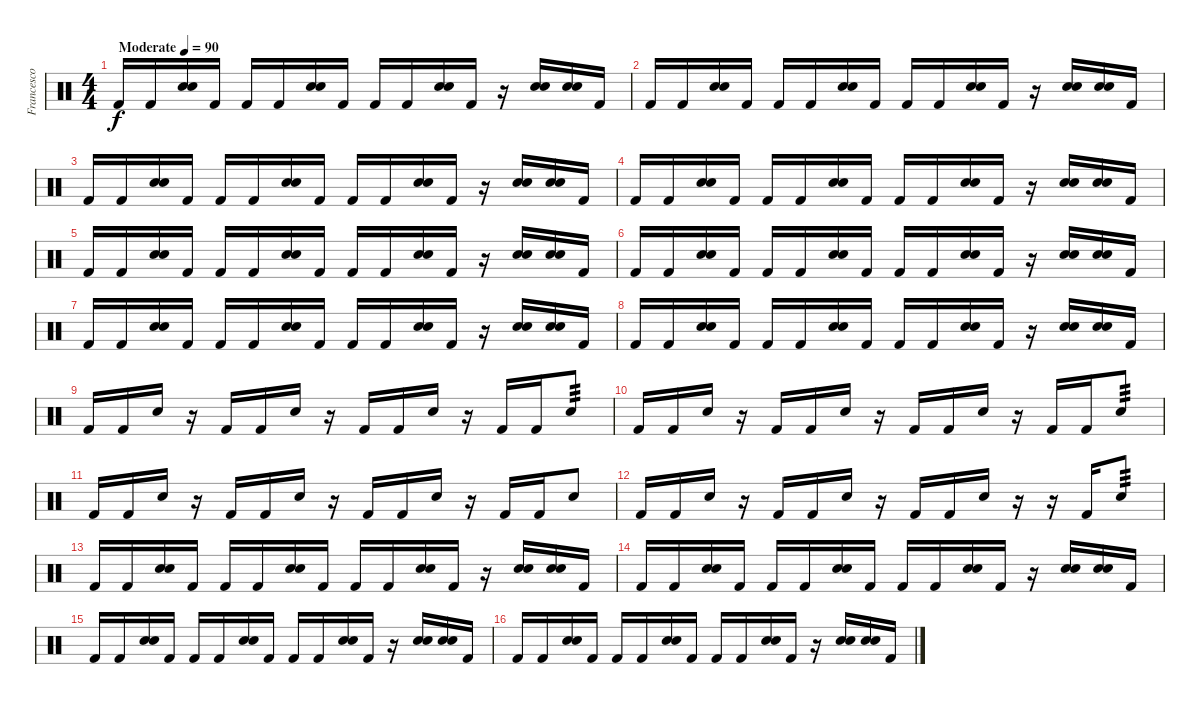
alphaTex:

\track ("Francesco -Franz- Valente" "Francesco ") {instrument percussion}
\staff {score}
\articulation defaults
\ts (4 4)
\tempo (90 "Moderate")
\clef neutral
\ks c "Kick (hit) 2".16{dy f} "Kick (hit) 2".16
("Electric Snare (hit)" "Electric Snare (hit)").16 "Kick (hit) 2".16 "Kick (hit) 2".16 "Kick (hit) 2".16 ("Electric Snare (hit)" "Electric Snare (hit)").16 "Kick (hit) 2".16 "Kick (hit) 2".16 "Kick (hit) 2".16 ("Electric Snare (hit)" "Electric Snare (hit)").16 "Kick (hit) 2".16 r.16 ("Electric Snare (hit)" "Electric Snare (hit)").16 ("Electric Snare (hit)" "Electric Snare (hit)").16 "Kick (hit) 2".16 |
"Kick (hit) 2".16 "Kick (hit) 2".16 ("Electric Snare (hit)" "Electric Snare (hit)").16 "Kick (hit) 2".16 "Kick (hit) 2".16 "Kick (hit) 2".16 ("Electric Snare (hit)" "Electric Snare (hit)").16 "Kick (hit) 2".16 "Kick (hit) 2".16 "Kick (hit) 2".16 ("Electric Snare (hit)" "Electric Snare (hit)").16 "Kick (hit) 2".16 r.16 ("Electric Snare (hit)" "Electric Snare (hit)").16 ("Electric Snare (hit)" "Electric Snare (hit)").16 "Kick (hit) 2".16 |
"Kick (hit) 2".16 "Kick (hit) 2".16 ("Electric Snare (hit)" "Electric Snare (hit)").16 "Kick (hit) 2".16 "Kick (hit) 2".16 "Kick (hit) 2".16 ("Electric Snare (hit)" "Electric Snare (hit)").16 "Kick (hit) 2".16 "Kick (hit) 2".16 "Kick (hit) 2".16 ("Electric Snare (hit)" "Electric Snare (hit)").16 "Kick (hit) 2".16 r.16 ("Electric Snare (hit)" "Electric Snare (hit)").16 ("Electric Snare (hit)" "Electric Snare (hit)").16 "Kick (hit) 2".16 |
"Kick (hit) 2".16 "Kick (hit) 2".16 ("Electric Snare (hit)" "Electric Snare (hit)").16 "Kick (hit) 2".16 "Kick (hit) 2".16 "Kick (hit) 2".16 ("Electric Snare (hit)" "Electric Snare (hit)").16 "Kick (hit) 2".16 "Kick (hit) 2".16 "Kick (hit) 2".16 ("Electric Snare (hit)" "Electric Snare (hit)").16 "Kick (hit) 2".16 r.16 ("Electric Snare (hit)" "Electric Snare (hit)").16 ("Electric Snare (hit)" "Electric Snare (hit)").16 "Kick (hit) 2".16 |
"Kick (hit) 2".16 "Kick (hit) 2".16 ("Electric Snare (hit)" "Electric Snare (hit)").16 "Kick (hit) 2".16 "Kick (hit) 2".16 "Kick (hit) 2".16 ("Electric Snare (hit)" "Electric Snare (hit)").16 "Kick (hit) 2".16 "Kick (hit) 2".16 "Kick (hit) 2".16 ("Electric Snare (hit)" "Electric Snare (hit)").16 "Kick (hit) 2".16 r.16 ("Electric Snare (hit)" "Electric Snare (hit)").16 ("Electric Snare (hit)" "Electric Snare (hit)").16 "Kick (hit) 2".16 |
"Kick (hit) 2".16 "Kick (hit) 2".16 ("Electric Snare (hit)" "Electric Snare (hit)").16 "Kick (hit) 2".16 "Kick (hit) 2".16 "Kick (hit) 2".16 ("Electric Snare (hit)" "Electric Snare (hit)").16 "Kick (hit) 2".16 "Kick (hit) 2".16 "Kick (hit) 2".16 ("Electric Snare (hit)" "Electric Snare (hit)").16 "Kick (hit) 2".16 r.16 ("Electric Snare (hit)" "Electric Snare (hit)").16 ("Electric Snare (hit)" "Electric Snare (hit)").16 "Kick (hit) 2".16 |
"Kick (hit) 2".16 "Kick (hit) 2".16 ("Electric Snare (hit)" "Electric Snare (hit)").16 "Kick (hit) 2".16 "Kick (hit) 2".16 "Kick (hit) 2".16 ("Electric Snare (hit)" "Electric Snare (hit)").16 "Kick (hit) 2".16 "Kick (hit) 2".16 "Kick (hit) 2".16 ("Electric Snare (hit)" "Electric Snare (hit)").16 "Kick (hit) 2".16 r.16 ("Electric Snare (hit)" "Electric Snare (hit)").16 ("Electric Snare (hit)" "Electric Snare (hit)").16 "Kick (hit) 2".16 |
"Kick (hit) 2".16 "Kick (hit) 2".16 ("Electric Snare (hit)" "Electric Snare (hit)").16 "Kick (hit) 2".16 "Kick (hit) 2".16 "Kick (hit) 2".16 ("Electric Snare (hit)" "Electric Snare (hit)").16 "Kick (hit) 2".16 "Kick (hit) 2".16 "Kick (hit) 2".16 ("Electric Snare (hit)" "Electric Snare (hit)").16 "Kick (hit) 2".16 r.16 ("Electric Snare (hit)" "Electric Snare (hit)").16 ("Electric Snare (hit)" "Electric Snare (hit)").16 "Kick (hit) 2".16 |
"Kick (hit) 2".16 "Kick (hit) 2".16 "Electric Snare (hit)".16 r.16 "Kick (hit) 2".16 "Kick (hit) 2".16 "Electric Snare (hit)".16 r.16 "Kick (hit) 2".16 "Kick (hit) 2".16 "Electric Snare (hit)".16 r.16 "Kick (hit) 2".16 "Kick (hit) 2".16 "Electric Snare (hit)".8{tp 3} |
"Kick (hit) 2".16 "Kick (hit) 2".16 "Electric Snare (hit)".16 r.16 "Kick (hit) 2".16 "Kick (hit) 2".16 "Electric Snare (hit)".16 r.16 "Kick (hit) 2".16 "Kick (hit) 2".16 "Electric Snare (hit)".16 r.16 "Kick (hit) 2".16 "Kick (hit) 2".16 "Electric Snare (hit)".8{tp 3} |
"Kick (hit) 2".16 "Kick (hit) 2".16 "Electric Snare (hit)".16 r.16 "Kick (hit) 2".16 "Kick (hit) 2".16 "Electric Snare (hit)".16 r.16 "Kick (hit) 2".16 "Kick (hit) 2".16 "Electric Snare (hit)".16 r.16 "Kick (hit) 2".16 "Kick (hit) 2".16 "Electric Snare (hit)".8 |
"Kick (hit) 2".16 "Kick (hit) 2".16 "Electric Snare (hit)".16 r.16 "Kick (hit) 2".16 "Kick (hit) 2".16 "Electric Snare (hit)".16 r.16 "Kick (hit) 2".16 "Kick (hit) 2".16 "Electric Snare (hit)".16 r.16 r.16 "Kick (hit) 2".16 "Electric Snare (hit)".8{tp 3} |
"Kick (hit) 2".16 "Kick (hit) 2".16 ("Electric Snare (hit)" "Electric Snare (hit)").16 "Kick (hit) 2".16 "Kick (hit) 2".16 "Kick (hit) 2".16 ("Electric Snare (hit)" "Electric Snare (hit)").16 "Kick (hit) 2".16 "Kick (hit) 2".16 "Kick (hit) 2".16 ("Electric Snare (hit)" "Electric Snare (hit)").16 "Kick (hit) 2".16 r.16 ("Electric Snare (hit)" "Electric Snare (hit)").16 ("Electric Snare (hit)" "Electric Snare (hit)").16 "Kick (hit) 2".16 |
"Kick (hit) 2".16 "Kick (hit) 2".16 ("Electric Snare (hit)" "Electric Snare (hit)").16 "Kick (hit) 2".16 "Kick (hit) 2".16 "Kick (hit) 2".16 ("Electric Snare (hit)" "Electric Snare (hit)").16 "Kick (hit) 2".16 "Kick (hit) 2".16 "Kick (hit) 2".16 ("Electric Snare (hit)" "Electric Snare (hit)").16 "Kick (hit) 2".16 r.16 ("Electric Snare (hit)" "Electric Snare (hit)").16 ("Electric Snare (hit)" "Electric Snare (hit)").16 "Kick (hit) 2".16 |
"Kick (hit) 2".16 "Kick (hit) 2".16 ("Electric Snare (hit)" "Electric Snare (hit)").16 "Kick (hit) 2".16 "Kick (hit) 2".16 "Kick (hit) 2".16 ("Electric Snare (hit)" "Electric Snare (hit)").16 "Kick (hit) 2".16 "Kick (hit) 2".16 "Kick (hit) 2".16 ("Electric Snare (hit)" "Electric Snare (hit)").16 "Kick (hit) 2".16 r.16 ("Electric Snare (hit)" "Electric Snare (hit)").16 ("Electric Snare (hit)" "Electric Snare (hit)").16 "Kick (hit) 2".16 |
"Kick (hit) 2".16 "Kick (hit) 2".16 ("Electric Snare (hit)" "Electric Snare (hit)").16 "Kick (hit) 2".16 "Kick (hit) 2".16 "Kick (hit) 2".16 ("Electric Snare (hit)" "Electric Snare (hit)").16 "Kick (hit) 2".16 "Kick (hit) 2".16 "Kick (hit) 2".16 ("Electric Snare (hit)" "Electric Snare (hit)").16 "Kick (hit) 2".16 r.16 ("Electric Snare (hit)" "Electric Snare (hit)").16 ("Electric Snare (hit)" "Electric Snare (hit)").16 "Kick (hit) 2".16
